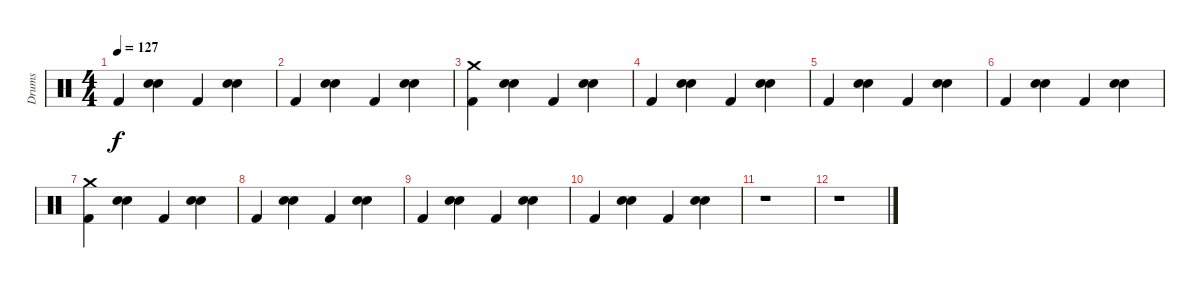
\track ("Drums" "Drums") {instrument percussion}
\staff {score}
\articulation defaults
\ts (4 4)
\tempo 127
\clef neutral
\ks c "Kick (hit) 2".4{dy f}
("Electric Snare (hit)" "Hand Clap (hit)").4 "Kick (hit) 2".4 ("Electric Snare (hit)" "Hand Clap (hit)").4 |
"Kick (hit) 2".4 ("Electric Snare (hit)" "Hand Clap (hit)").4 "Kick (hit) 2".4 ("Electric Snare (hit)" "Hand Clap (hit)").4 |
("Kick (hit) 2" "Crash medium (hit)").4 ("Electric Snare (hit)" "Hand Clap (hit)").4 "Kick (hit) 2".4 ("Electric Snare (hit)" "Hand Clap (hit)").4 |
"Kick (hit) 2".4 ("Electric Snare (hit)" "Hand Clap (hit)").4 "Kick (hit) 2".4 ("Electric Snare (hit)" "Hand Clap (hit)").4 |
"Kick (hit) 2".4 ("Electric Snare (hit)" "Hand Clap (hit)").4 "Kick (hit) 2".4 ("Electric Snare (hit)" "Hand Clap (hit)").4 |
"Kick (hit) 2".4 ("Electric Snare (hit)" "Hand Clap (hit)").4 "Kick (hit) 2".4 ("Electric Snare (hit)" "Hand Clap (hit)").4 |
("Kick (hit) 2" "Crash medium (hit)").4 ("Electric Snare (hit)" "Hand Clap (hit)").4 "Kick (hit) 2".4 ("Electric Snare (hit)" "Hand Clap (hit)").4 |
"Kick (hit) 2".4 ("Electric Snare (hit)" "Hand Clap (hit)").4 "Kick (hit) 2".4 ("Electric Snare (hit)" "Hand Clap (hit)").4 |
"Kick (hit) 2".4 ("Electric Snare (hit)" "Hand Clap (hit)").4 "Kick (hit) 2".4 ("Electric Snare (hit)" "Hand Clap (hit)").4 |
"Kick (hit) 2".4 ("Electric Snare (hit)" "Hand Clap (hit)").4 "Kick (hit) 2".4 ("Electric Snare (hit)" "Hand Clap (hit)").4 |
r.1 |
r.1
